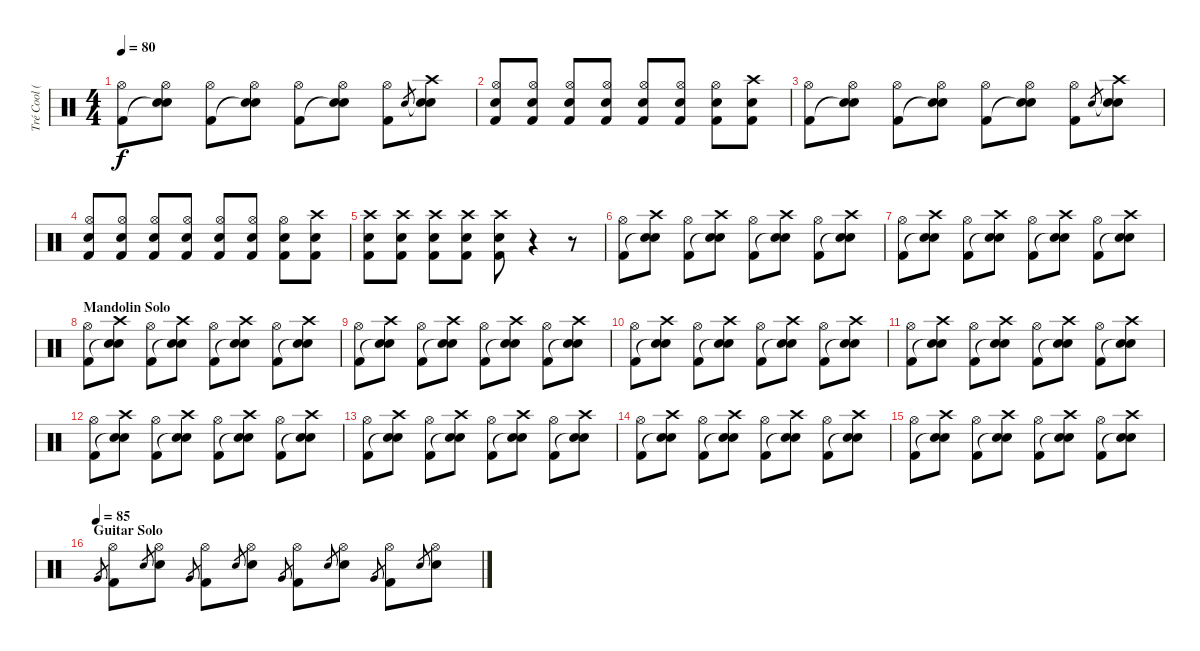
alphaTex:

\track ("Tré Cool (Drums)" "Tré Cool (") {instrument percussion}
\staff {score}
\articulation defaults
\ts (4 4)
\tempo 80
\clef neutral
\ks c
("Kick (hit) 2" "Hi-Hat (open)").8{dy f} ("Snare (hit)"{t} "Electric Snare (hit)" "Hi-Hat (open)").8 ("Kick (hit) 2" "Hi-Hat (open)").8 ("Snare (hit)"{t} "Electric Snare (hit)" "Hi-Hat (open)").8 ("Kick (hit) 2" "Hi-Hat (open)").8 ("Snare (hit)"{t} "Electric Snare (hit)" "Hi-Hat (open)").8 ("Kick (hit) 2" "Hi-Hat (open)").8 "Electric Snare (hit)".8{gr} ("Snare (hit)"{t} "Electric Snare (hit)"{tr (40 16)} "Crash high (hit)").8 |
("Kick (hit) 2" "Electric Snare (hit)" "Hi-Hat (open)").8 ("Kick (hit) 2" "Electric Snare (hit)" "Hi-Hat (open)").8 ("Kick (hit) 2" "Electric Snare (hit)" "Hi-Hat (open)").8 ("Kick (hit) 2" "Electric Snare (hit)" "Hi-Hat (open)").8 ("Kick (hit) 2" "Electric Snare (hit)" "Hi-Hat (open)").8 ("Kick (hit) 2" "Electric Snare (hit)" "Hi-Hat (open)").8 ("Kick (hit) 2" "Electric Snare (hit)" "Hi-Hat (open)").8 ("Kick (hit) 2" "Electric Snare (hit)" "Crash high (hit)").8 |
("Kick (hit) 2" "Hi-Hat (open)").8 ("Snare (hit)"{t} "Electric Snare (hit)" "Hi-Hat (open)").8 ("Kick (hit) 2" "Hi-Hat (open)").8 ("Snare (hit)"{t} "Electric Snare (hit)" "Hi-Hat (open)").8 ("Kick (hit) 2" "Hi-Hat (open)").8 ("Snare (hit)"{t} "Electric Snare (hit)" "Hi-Hat (open)").8 ("Kick (hit) 2" "Hi-Hat (open)").8 "Electric Snare (hit)".8{gr} ("Snare (hit)"{t} "Electric Snare (hit)"{tr (40 16)} "Crash high (hit)").8 |
("Kick (hit) 2" "Electric Snare (hit)" "Hi-Hat (open)").8 ("Kick (hit) 2" "Electric Snare (hit)" "Hi-Hat (open)").8 ("Kick (hit) 2" "Electric Snare (hit)" "Hi-Hat (open)").8 ("Kick (hit) 2" "Electric Snare (hit)" "Hi-Hat (open)").8 ("Kick (hit) 2" "Electric Snare (hit)" "Hi-Hat (open)").8 ("Kick (hit) 2" "Electric Snare (hit)" "Hi-Hat (open)").8 ("Kick (hit) 2" "Electric Snare (hit)" "Hi-Hat (open)").8 ("Kick (hit) 2" "Electric Snare (hit)" "Crash high (hit)").8 |
("Electric Snare (hit)" "Kick (hit) 2" "Crash high (hit)").8 ("Electric Snare (hit)" "Kick (hit) 2" "Crash high (hit)").8 ("Electric Snare (hit)" "Kick (hit) 2" "Crash high (hit)").8 ("Electric Snare (hit)" "Kick (hit) 2" "Crash high (hit)").8 ("Electric Snare (hit)" "Kick (hit) 2" "Crash high (hit)").8 r.4 r.8 |
("Kick (hit) 2" "Hi-Hat (open)").8 ("Snare (hit)"{t} "Electric Snare (hit)" "Crash high (hit)").8 ("Kick (hit) 2" "Hi-Hat (open)").8 ("Snare (hit)"{t} "Electric Snare (hit)" "Crash high (hit)").8 ("Kick (hit) 2" "Hi-Hat (open)").8 ("Snare (hit)"{t} "Electric Snare (hit)" "Crash high (hit)").8 ("Kick (hit) 2" "Hi-Hat (open)").8 ("Snare (hit)"{t} "Electric Snare (hit)" "Crash high (hit)").8 |
("Kick (hit) 2" "Hi-Hat (open)").8 ("Snare (hit)"{t} "Electric Snare (hit)" "Crash high (hit)").8 ("Kick (hit) 2" "Hi-Hat (open)").8 ("Snare (hit)"{t} "Electric Snare (hit)" "Crash high (hit)").8 ("Kick (hit) 2" "Hi-Hat (open)").8 ("Snare (hit)"{t} "Electric Snare (hit)" "Crash high (hit)").8 ("Kick (hit) 2" "Hi-Hat (open)").8 ("Snare (hit)"{t} "Electric Snare (hit)" "Crash high (hit)").8 |
\section ("" "Mandolin Solo")
("Kick (hit) 2" "Hi-Hat (open)").8 ("Snare (hit)"{t} "Electric Snare (hit)" "Crash high (hit)").8 ("Kick (hit) 2" "Hi-Hat (open)").8 ("Snare (hit)"{t} "Electric Snare (hit)" "Crash high (hit)").8 ("Kick (hit) 2" "Hi-Hat (open)").8 ("Snare (hit)"{t} "Electric Snare (hit)" "Crash high (hit)").8 ("Kick (hit) 2" "Hi-Hat (open)").8 ("Snare (hit)"{t} "Electric Snare (hit)" "Crash high (hit)").8 |
("Kick (hit) 2" "Hi-Hat (open)").8 ("Snare (hit)"{t} "Electric Snare (hit)" "Crash high (hit)").8 ("Kick (hit) 2" "Hi-Hat (open)").8 ("Snare (hit)"{t} "Electric Snare (hit)" "Crash high (hit)").8 ("Kick (hit) 2" "Hi-Hat (open)").8 ("Snare (hit)"{t} "Electric Snare (hit)" "Crash high (hit)").8 ("Kick (hit) 2" "Hi-Hat (open)").8 ("Snare (hit)"{t} "Electric Snare (hit)" "Crash high (hit)").8 |
("Kick (hit) 2" "Hi-Hat (open)").8 ("Snare (hit)"{t} "Electric Snare (hit)" "Crash high (hit)").8 ("Kick (hit) 2" "Hi-Hat (open)").8 ("Snare (hit)"{t} "Electric Snare (hit)" "Crash high (hit)").8 ("Kick (hit) 2" "Hi-Hat (open)").8 ("Snare (hit)"{t} "Electric Snare (hit)" "Crash high (hit)").8 ("Kick (hit) 2" "Hi-Hat (open)").8 ("Snare (hit)"{t} "Electric Snare (hit)" "Crash high (hit)").8 |
("Kick (hit) 2" "Hi-Hat (open)").8 ("Snare (hit)"{t} "Electric Snare (hit)" "Crash high (hit)").8 ("Kick (hit) 2" "Hi-Hat (open)").8 ("Snare (hit)"{t} "Electric Snare (hit)" "Crash high (hit)").8 ("Kick (hit) 2" "Hi-Hat (open)").8 ("Snare (hit)"{t} "Electric Snare (hit)" "Crash high (hit)").8 ("Kick (hit) 2" "Hi-Hat (open)").8 ("Snare (hit)"{t} "Electric Snare (hit)" "Crash high (hit)").8 |
("Kick (hit) 2" "Hi-Hat (open)").8 ("Snare (hit)"{t} "Electric Snare (hit)" "Crash high (hit)").8 ("Kick (hit) 2" "Hi-Hat (open)").8 ("Snare (hit)"{t} "Electric Snare (hit)" "Crash high (hit)").8 ("Kick (hit) 2" "Hi-Hat (open)").8 ("Snare (hit)"{t} "Electric Snare (hit)" "Crash high (hit)").8 ("Kick (hit) 2" "Hi-Hat (open)").8 ("Snare (hit)"{t} "Electric Snare (hit)" "Crash high (hit)").8 |
("Kick (hit) 2" "Hi-Hat (open)").8 ("Snare (hit)"{t} "Electric Snare (hit)" "Crash high (hit)").8 ("Kick (hit) 2" "Hi-Hat (open)").8 ("Snare (hit)"{t} "Electric Snare (hit)" "Crash high (hit)").8 ("Kick (hit) 2" "Hi-Hat (open)").8 ("Snare (hit)"{t} "Electric Snare (hit)" "Crash high (hit)").8 ("Kick (hit) 2" "Hi-Hat (open)").8 ("Snare (hit)"{t} "Electric Snare (hit)" "Crash high (hit)").8 |
("Kick (hit) 2" "Hi-Hat (open)").8 ("Snare (hit)"{t} "Electric Snare (hit)" "Crash high (hit)").8 ("Kick (hit) 2" "Hi-Hat (open)").8 ("Snare (hit)"{t} "Electric Snare (hit)" "Crash high (hit)").8 ("Kick (hit) 2" "Hi-Hat (open)").8 ("Snare (hit)"{t} "Electric Snare (hit)" "Crash high (hit)").8 ("Kick (hit) 2" "Hi-Hat (open)").8 ("Snare (hit)"{t} "Electric Snare (hit)" "Crash high (hit)").8 |
("Kick (hit) 2" "Hi-Hat (open)").8 ("Snare (hit)"{t} "Electric Snare (hit)" "Crash high (hit)").8 ("Kick (hit) 2" "Hi-Hat (open)").8 ("Snare (hit)"{t} "Electric Snare (hit)" "Crash high (hit)").8 ("Kick (hit) 2" "Hi-Hat (open)").8 ("Snare (hit)"{t} "Electric Snare (hit)" "Crash high (hit)").8 ("Kick (hit) 2" "Hi-Hat (open)").8 ("Snare (hit)"{t} "Electric Snare (hit)" "Crash high (hit)").8 |
\section ("" "Guitar Solo")
\tempo (85)
"Very Low Tom (hit)".8{gr} ("Kick (hit) 2" "Hi-Hat (open)").8 "Electric Snare (hit)".8{gr} ("Electric Snare (hit)"{tr (40 16)} "Hi-Hat (open)").8 "Very Low Tom (hit)".8{gr} ("Kick (hit) 2" "Hi-Hat (open)").8 "Electric Snare (hit)".8{gr} ("Electric Snare (hit)"{tr (40 16)} "Hi-Hat (open)").8 "Very Low Tom (hit)".8{gr} ("Kick (hit) 2" "Hi-Hat (open)").8 "Electric Snare (hit)".8{gr} ("Electric Snare (hit)"{tr (40 16)} "Hi-Hat (open)").8 "Very Low Tom (hit)".8{gr} ("Kick (hit) 2" "Hi-Hat (open)").8 "Electric Snare (hit)".8{gr} ("Electric Snare (hit)"{tr (40 16)} "Hi-Hat (open)").8
